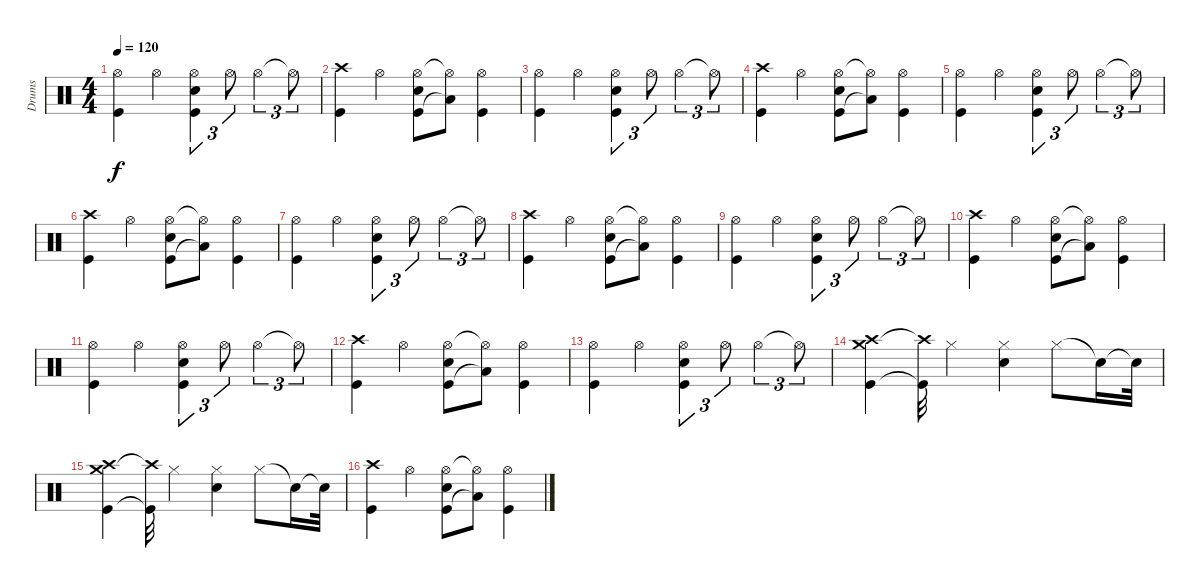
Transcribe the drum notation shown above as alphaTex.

\track ("Drums" "Drums") {instrument percussion}
\staff {score}
\articulation defaults
\ts (4 4)
\tempo 120
\clef neutral
\ks c
("Hi-Hat (open)" "Kick (hit)").4{dy f} "Hi-Hat (open)".4 ("Hi-Hat (open)" "Kick (hit)" "Electric Snare (hit)").4{tu (3 2)} "Hi-Hat (open)".8{tu (3 2)} "Hi-Hat (open)".4{tu (3 2)} "Hi-Hat (open)"{t}.8{tu (3 2)} |
("Crash high (hit)" "Kick (hit)").4 "Hi-Hat (open)".4 ("Hi-Hat (open)" "Kick (hit)" "Electric Snare (hit)").8 ("Hi-Hat (open)"{t} "Low Tom (hit)"{t}).8 ("Hi-Hat (open)" "Kick (hit)").4 |
("Hi-Hat (open)" "Kick (hit)").4 "Hi-Hat (open)".4 ("Hi-Hat (open)" "Kick (hit)" "Electric Snare (hit)").4{tu (3 2)} "Hi-Hat (open)".8{tu (3 2)} "Hi-Hat (open)".4{tu (3 2)} "Hi-Hat (open)"{t}.8{tu (3 2)} |
("Crash high (hit)" "Kick (hit)").4 "Hi-Hat (open)".4 ("Hi-Hat (open)" "Kick (hit)" "Electric Snare (hit)").8 ("Hi-Hat (open)"{t} "Low Tom (hit)"{t}).8 ("Hi-Hat (open)" "Kick (hit)").4 |
("Hi-Hat (open)" "Kick (hit)").4 "Hi-Hat (open)".4 ("Hi-Hat (open)" "Kick (hit)" "Electric Snare (hit)").4{tu (3 2)} "Hi-Hat (open)".8{tu (3 2)} "Hi-Hat (open)".4{tu (3 2)} "Hi-Hat (open)"{t}.8{tu (3 2)} |
("Crash high (hit)" "Kick (hit)").4 "Hi-Hat (open)".4 ("Hi-Hat (open)" "Kick (hit)" "Electric Snare (hit)").8 ("Hi-Hat (open)"{t} "Low Tom (hit)"{t}).8 ("Hi-Hat (open)" "Kick (hit)").4 |
("Hi-Hat (open)" "Kick (hit)").4 "Hi-Hat (open)".4 ("Hi-Hat (open)" "Kick (hit)" "Electric Snare (hit)").4{tu (3 2)} "Hi-Hat (open)".8{tu (3 2)} "Hi-Hat (open)".4{tu (3 2)} "Hi-Hat (open)"{t}.8{tu (3 2)} |
("Crash high (hit)" "Kick (hit)").4 "Hi-Hat (open)".4 ("Hi-Hat (open)" "Kick (hit)" "Electric Snare (hit)").8 ("Hi-Hat (open)"{t} "Low Tom (hit)"{t}).8 ("Hi-Hat (open)" "Kick (hit)").4 |
("Hi-Hat (open)" "Kick (hit)").4 "Hi-Hat (open)".4 ("Hi-Hat (open)" "Kick (hit)" "Electric Snare (hit)").4{tu (3 2)} "Hi-Hat (open)".8{tu (3 2)} "Hi-Hat (open)".4{tu (3 2)} "Hi-Hat (open)"{t}.8{tu (3 2)} |
("Crash high (hit)" "Kick (hit)").4 "Hi-Hat (open)".4 ("Hi-Hat (open)" "Kick (hit)" "Electric Snare (hit)").8 ("Hi-Hat (open)"{t} "Low Tom (hit)"{t}).8 ("Hi-Hat (open)" "Kick (hit)").4 |
("Hi-Hat (open)" "Kick (hit)").4 "Hi-Hat (open)".4 ("Hi-Hat (open)" "Kick (hit)" "Electric Snare (hit)").4{tu (3 2)} "Hi-Hat (open)".8{tu (3 2)} "Hi-Hat (open)".4{tu (3 2)} "Hi-Hat (open)"{t}.8{tu (3 2)} |
("Crash high (hit)" "Kick (hit)").4 "Hi-Hat (open)".4 ("Hi-Hat (open)" "Kick (hit)" "Electric Snare (hit)").8 ("Hi-Hat (open)"{t} "Low Tom (hit)"{t}).8 ("Hi-Hat (open)" "Kick (hit)").4 |
("Hi-Hat (open)" "Kick (hit)").4 "Hi-Hat (open)".4 ("Hi-Hat (open)" "Kick (hit)" "Electric Snare (hit)").4{tu (3 2)} "Hi-Hat (open)".8{tu (3 2)} "Hi-Hat (open)".4{tu (3 2)} "Hi-Hat (open)"{t}.8{tu (3 2)} |
("Kick (hit)" "Crash medium (hit)" "Crash high (hit)").4 ("Kick (hit)"{t} "Crash high (hit)"{t}).32 "Hi-Hat (closed)".4 ("Snare (hit) 2" "Hi-Hat (closed)").4 "Hi-Hat (closed)".8 "Electric Snare (hit)"{t}.16 "Electric Snare (hit)"{t}.32 |
("Kick (hit)" "Crash medium (hit)" "Crash high (hit)").4 ("Kick (hit)"{t} "Crash high (hit)"{t}).32 "Hi-Hat (closed)".4 ("Snare (hit) 2" "Hi-Hat (closed)").4 "Hi-Hat (closed)".8 "Electric Snare (hit)"{t}.16 "Electric Snare (hit)"{t}.32 |
("Crash high (hit)" "Kick (hit)").4 "Hi-Hat (open)".4 ("Hi-Hat (open)" "Kick (hit)" "Electric Snare (hit)").8 ("Hi-Hat (open)"{t} "Low Tom (hit)"{t}).8 ("Hi-Hat (open)" "Kick (hit)").4
